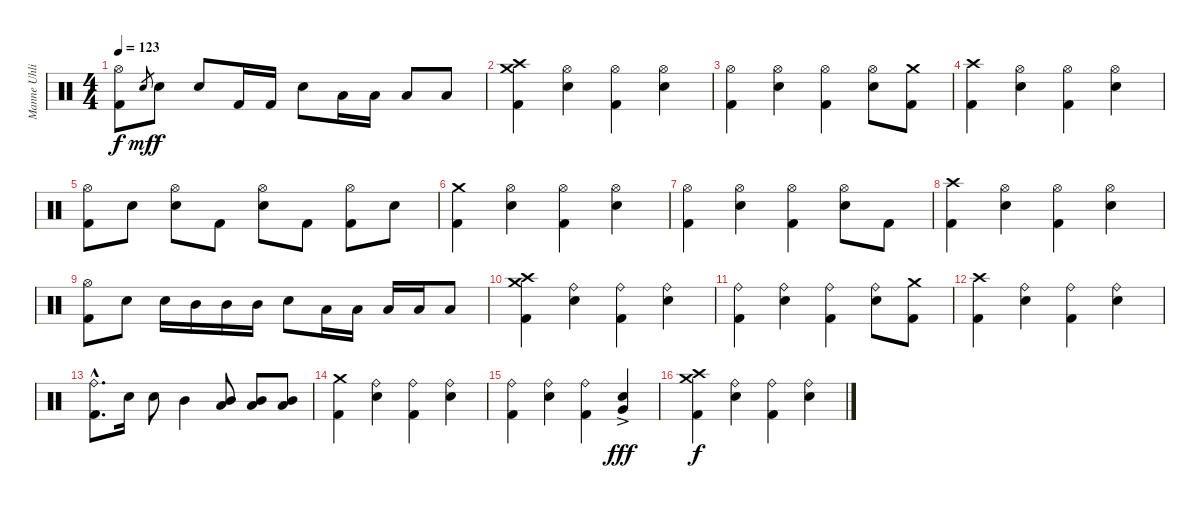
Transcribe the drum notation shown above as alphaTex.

\track ("Manne Uhlig" "Manne Uhli") {instrument percussion}
\staff {score}
\articulation defaults
\ts (4 4)
\tempo 123
\clef neutral
\ks c
("Hi-Hat (open)" "Kick (hit) 2").8{dy f} "Snare (hit) 2".8{gr dy mf} "Snare (hit) 2".8{dy f} "Snare (hit) 2".8 "Kick (hit) 2".16 "Kick (hit) 2".16 "Snare (hit) 2".8 "Low Tom (hit)".16 "Low Tom (hit)".16 "Low Tom (hit)".8 "Low Tom (hit)".8 |
("Crash high (hit)" "Crash medium (hit)" "Kick (hit) 2").4 ("Hi-Hat (open)" "Snare (hit) 2").4 ("Hi-Hat (open)" "Kick (hit) 2").4 ("Hi-Hat (open)" "Snare (hit) 2").4 |
("Hi-Hat (open)" "Kick (hit) 2").4 ("Hi-Hat (open)" "Snare (hit) 2").4 ("Hi-Hat (open)" "Kick (hit) 2").4 ("Hi-Hat (open)" "Snare (hit) 2").8 ("Crash medium (hit)" "Kick (hit) 2").8 |
("Crash high (hit)" "Kick (hit) 2").4 ("Hi-Hat (open)" "Snare (hit) 2").4 ("Hi-Hat (open)" "Kick (hit) 2").4 ("Hi-Hat (open)" "Snare (hit) 2").4 |
("Hi-Hat (open)" "Kick (hit) 2").8 "Snare (hit) 2".8 ("Hi-Hat (open)" "Snare (hit) 2").8 "Kick (hit) 2".8 ("Hi-Hat (open)" "Snare (hit) 2").8 "Kick (hit) 2".8 ("Hi-Hat (open)" "Kick (hit) 2").8 "Snare (hit) 2".8 |
("Crash medium (hit)" "Kick (hit) 2").4 ("Hi-Hat (open)" "Snare (hit) 2").4 ("Hi-Hat (open)" "Kick (hit) 2").4 ("Hi-Hat (open)" "Snare (hit) 2").4 |
("Hi-Hat (open)" "Kick (hit) 2").4 ("Hi-Hat (open)" "Snare (hit) 2").4 ("Hi-Hat (open)" "Kick (hit) 2").4 ("Hi-Hat (open)" "Snare (hit) 2").8 "Kick (hit) 2".8 |
("Crash high (hit)" "Kick (hit) 2").4 ("Hi-Hat (open)" "Snare (hit) 2").4 ("Hi-Hat (open)" "Kick (hit) 2").4 ("Hi-Hat (open)" "Snare (hit) 2").4 |
("Hi-Hat (open)" "Kick (hit) 2").8 "Snare (hit) 2".8 "Snare (hit) 2".16 "Mid Tom (hit)".16 "Mid Tom (hit)".16 "Mid Tom (hit)".16 "Snare (hit) 2".8 "Low Tom (hit)".16 "Low Tom (hit)".16 "Low Tom (hit)".16 "Low Tom (hit)".16 "Low Tom (hit)".8 |
("Crash high (hit)" "Crash medium (hit)" "Kick (hit) 2").4 ("Ride (bell)" "Snare (hit) 2").4 ("Ride (bell)" "Kick (hit) 2").4 ("Ride (bell)" "Snare (hit) 2").4 |
("Ride (bell)" "Kick (hit) 2").4 ("Ride (bell)" "Snare (hit) 2").4 ("Ride (bell)" "Kick (hit) 2").4 ("Ride (bell)" "Snare (hit) 2").8 ("Crash medium (hit)" "Kick (hit) 2").8 |
("Crash high (hit)" "Kick (hit) 2").4 ("Ride (bell)" "Snare (hit) 2").4 ("Ride (bell)" "Kick (hit) 2").4 ("Ride (bell)" "Snare (hit) 2").4 |
("Ride (bell)"{hac} "Kick (hit) 2"{hac}).8{d} "Snare (hit) 2".16 "Snare (hit) 2".8 "Mid Tom (hit)".4 ("Mid Tom (hit)" "Low Tom (hit)").8 ("Mid Tom (hit)" "Low Tom (hit)").8 ("Mid Tom (hit)" "Low Tom (hit)").8 |
("Crash medium (hit)" "Kick (hit) 2").4 ("Ride (bell)" "Snare (hit) 2").4 ("Ride (bell)" "Kick (hit) 2").4 ("Ride (bell)" "Snare (hit) 2").4 |
("Ride (bell)" "Kick (hit) 2").4 ("Ride (bell)" "Snare (hit) 2").4 ("Ride (bell)" "Kick (hit) 2").4 ("Snare (hit) 2" "Very Low Tom (hit)"{ac}).4{dy fff} |
("Crash high (hit)" "Crash medium (hit)" "Kick (hit) 2").4{dy f} ("Ride (bell)" "Snare (hit) 2").4 ("Ride (bell)" "Kick (hit) 2").4 ("Ride (bell)" "Snare (hit) 2").4
